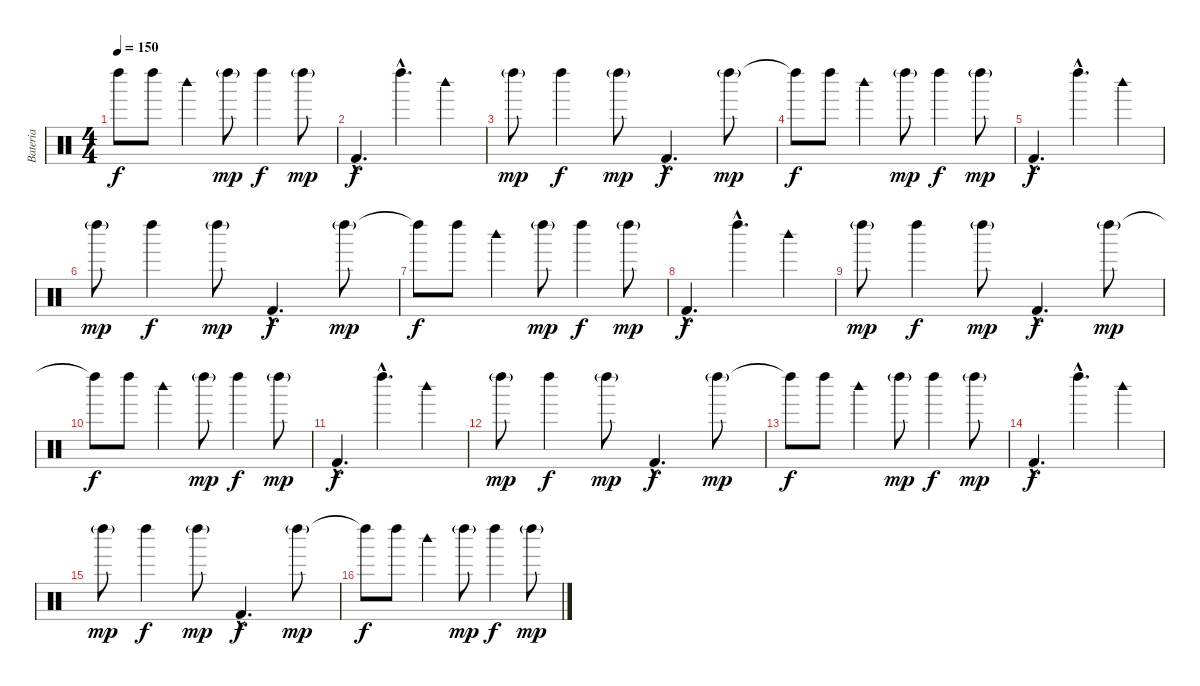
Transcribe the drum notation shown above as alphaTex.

\track ("Bateria" "Bateria") {instrument percussion}
\staff {score}
\articulation defaults
\ts (4 4)
\tempo 150
\clef neutral
\ks c "Left Maraca (hit)"{t}.8{dy f} "Left Maraca (hit)".8 "Woodblock high (hit)".4 "Left Maraca (hit)"{g}.8{dy mp} "Left Maraca (hit)".4{dy f} "Left Maraca (hit)"{g}.8{dy mp}
|
"Kick (hit) 2"{hac}.4{d dy f} "Left Maraca (hit)"{hac}.4{d} "Woodblock high (hit)".4 |
"Left Maraca (hit)"{g}.8{dy mp} "Left Maraca (hit)".4{dy f} "Left Maraca (hit)"{g}.8{dy mp} "Kick (hit) 2"{hac}.4{d dy f} "Left Maraca (hit)"{g}.8{dy mp} |
"Left Maraca (hit)"{t}.8{dy f} "Left Maraca (hit)".8 "Woodblock high (hit)".4 "Left Maraca (hit)"{g}.8{dy mp} "Left Maraca (hit)".4{dy f} "Left Maraca (hit)"{g}.8{dy mp} |
"Kick (hit) 2"{hac}.4{d dy f} "Left Maraca (hit)"{hac}.4{d} "Woodblock high (hit)".4 |
"Left Maraca (hit)"{g}.8{dy mp} "Left Maraca (hit)".4{dy f} "Left Maraca (hit)"{g}.8{dy mp} "Kick (hit) 2"{hac}.4{d dy f} "Left Maraca (hit)"{g}.8{dy mp} |
"Left Maraca (hit)"{t}.8{dy f} "Left Maraca (hit)".8 "Woodblock high (hit)".4 "Left Maraca (hit)"{g}.8{dy mp} "Left Maraca (hit)".4{dy f} "Left Maraca (hit)"{g}.8{dy mp} |
"Kick (hit) 2"{hac}.4{d dy f} "Left Maraca (hit)"{hac}.4{d} "Woodblock high (hit)".4 |
"Left Maraca (hit)"{g}.8{dy mp} "Left Maraca (hit)".4{dy f} "Left Maraca (hit)"{g}.8{dy mp} "Kick (hit) 2"{hac}.4{d dy f} "Left Maraca (hit)"{g}.8{dy mp} |
"Left Maraca (hit)"{t}.8{dy f} "Left Maraca (hit)".8 "Woodblock high (hit)".4 "Left Maraca (hit)"{g}.8{dy mp} "Left Maraca (hit)".4{dy f} "Left Maraca (hit)"{g}.8{dy mp} |
"Kick (hit) 2"{hac}.4{d dy f} "Left Maraca (hit)"{hac}.4{d} "Woodblock high (hit)".4 |
"Left Maraca (hit)"{g}.8{dy mp} "Left Maraca (hit)".4{dy f} "Left Maraca (hit)"{g}.8{dy mp} "Kick (hit) 2"{hac}.4{d dy f} "Left Maraca (hit)"{g}.8{dy mp} |
"Left Maraca (hit)"{t}.8{dy f} "Left Maraca (hit)".8 "Woodblock high (hit)".4 "Left Maraca (hit)"{g}.8{dy mp} "Left Maraca (hit)".4{dy f} "Left Maraca (hit)"{g}.8{dy mp} |
"Kick (hit) 2"{hac}.4{d dy f} "Left Maraca (hit)"{hac}.4{d} "Woodblock high (hit)".4 |
"Left Maraca (hit)"{g}.8{dy mp} "Left Maraca (hit)".4{dy f} "Left Maraca (hit)"{g}.8{dy mp} "Kick (hit) 2"{hac}.4{d dy f} "Left Maraca (hit)"{g}.8{dy mp} |
"Left Maraca (hit)"{t}.8{dy f} "Left Maraca (hit)".8 "Woodblock high (hit)".4 "Left Maraca (hit)"{g}.8{dy mp} "Left Maraca (hit)".4{dy f} "Left Maraca (hit)"{g}.8{dy mp}
